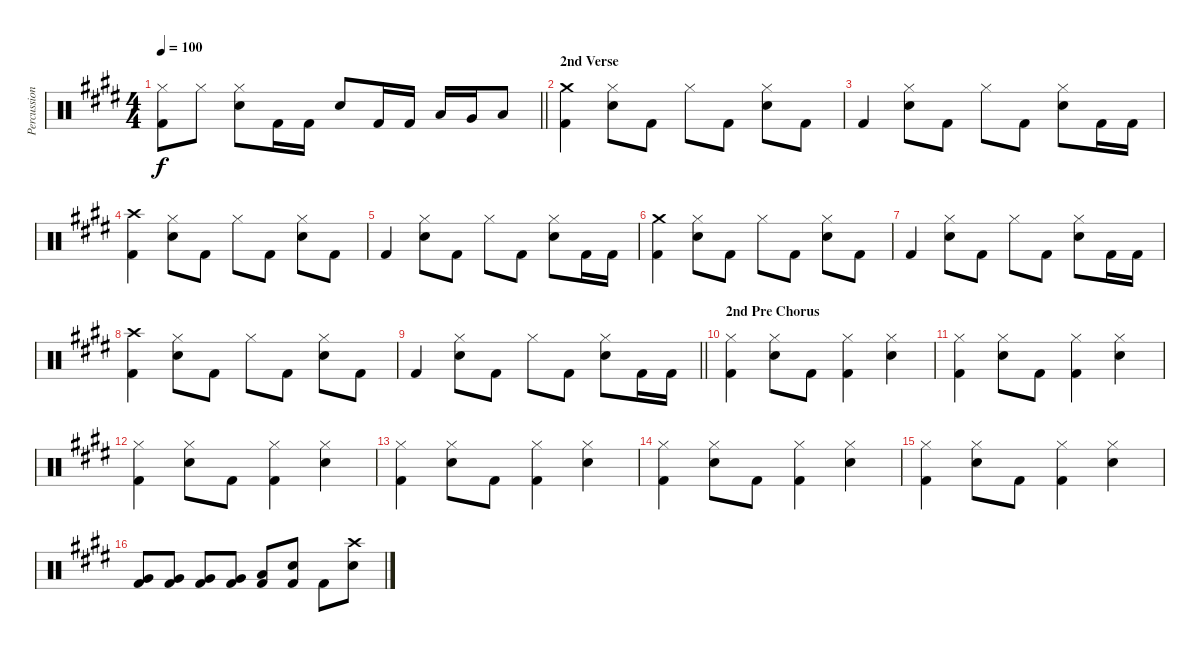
\track ("Percussion" "Percussion") {instrument percussion}
\staff {score}
\articulation defaults
\ts (4 4)
\tempo 100
\clef neutral
\barLineRight lightlight
\ks c#minor
("Hi-Hat (closed)" "Kick (hit) 2").8{dy f} "Hi-Hat (closed)".8 ("Hi-Hat (closed)" "Snare (hit) 2").8 "Kick (hit) 2".16 "Kick (hit) 2".16 "Snare (hit) 2".8 "Kick (hit) 2".16 "Kick (hit) 2".16 "Low Tom (hit)".16 "Very Low Tom (hit)".16 "Low Floor Tom (hit)".8 |
\section ("" "2nd Verse")
("Crash medium (hit)" "Kick (hit) 2").4 ("Hi-Hat (closed)" "Snare (hit) 2").8 "Kick (hit) 2".8 "Hi-Hat (closed)".8 "Kick (hit) 2".8 ("Hi-Hat (closed)" "Snare (hit) 2").8 "Kick (hit) 2".8 |
"Kick (hit) 2".4 ("Hi-Hat (closed)" "Snare (hit) 2").8 "Kick (hit) 2".8 "Hi-Hat (closed)".8 "Kick (hit) 2".8 ("Hi-Hat (closed)" "Snare (hit) 2").8 "Kick (hit) 2".16 "Kick (hit) 2".16 |
("Crash high (hit)" "Kick (hit) 2").4 ("Hi-Hat (closed)" "Snare (hit) 2").8 "Kick (hit) 2".8 "Hi-Hat (closed)".8 "Kick (hit) 2".8 ("Hi-Hat (closed)" "Snare (hit) 2").8 "Kick (hit) 2".8 |
"Kick (hit) 2".4 ("Hi-Hat (closed)" "Snare (hit) 2").8 "Kick (hit) 2".8 "Hi-Hat (closed)".8 "Kick (hit) 2".8 ("Hi-Hat (closed)" "Snare (hit) 2").8 "Kick (hit) 2".16 "Kick (hit) 2".16 |
("Crash medium (hit)" "Kick (hit) 2").4 ("Hi-Hat (closed)" "Snare (hit) 2").8 "Kick (hit) 2".8 "Hi-Hat (closed)".8 "Kick (hit) 2".8 ("Hi-Hat (closed)" "Snare (hit) 2").8 "Kick (hit) 2".8 |
"Kick (hit) 2".4 ("Hi-Hat (closed)" "Snare (hit) 2").8 "Kick (hit) 2".8 "Hi-Hat (closed)".8 "Kick (hit) 2".8 ("Hi-Hat (closed)" "Snare (hit) 2").8 "Kick (hit) 2".16 "Kick (hit) 2".16 |
("Crash high (hit)" "Kick (hit) 2").4 ("Hi-Hat (closed)" "Snare (hit) 2").8 "Kick (hit) 2".8 "Hi-Hat (closed)".8 "Kick (hit) 2".8 ("Hi-Hat (closed)" "Snare (hit) 2").8 "Kick (hit) 2".8 |
\barLineRight lightlight "Kick (hit) 2".4
("Hi-Hat (closed)" "Snare (hit) 2").8 "Kick (hit) 2".8 "Hi-Hat (closed)".8 "Kick (hit) 2".8 ("Hi-Hat (closed)" "Snare (hit) 2").8 "Kick (hit) 2".16 "Kick (hit) 2".16 |
\section ("" "2nd Pre Chorus")
("Hi-Hat (closed)" "Kick (hit) 2").4 ("Hi-Hat (closed)" "Snare (hit) 2").8 "Kick (hit) 2".8 ("Hi-Hat (closed)" "Kick (hit) 2").4 ("Hi-Hat (closed)" "Snare (hit) 2").4 |
("Hi-Hat (closed)" "Kick (hit) 2").4 ("Hi-Hat (closed)" "Snare (hit) 2").8 "Kick (hit) 2".8 ("Hi-Hat (closed)" "Kick (hit) 2").4 ("Hi-Hat (closed)" "Snare (hit) 2").4 |
("Hi-Hat (closed)" "Kick (hit) 2").4 ("Hi-Hat (closed)" "Snare (hit) 2").8 "Kick (hit) 2".8 ("Hi-Hat (closed)" "Kick (hit) 2").4 ("Hi-Hat (closed)" "Snare (hit) 2").4 |
("Hi-Hat (closed)" "Kick (hit) 2").4 ("Hi-Hat (closed)" "Snare (hit) 2").8 "Kick (hit) 2".8 ("Hi-Hat (closed)" "Kick (hit) 2").4 ("Hi-Hat (closed)" "Snare (hit) 2").4 |
("Hi-Hat (closed)" "Kick (hit) 2").4 ("Hi-Hat (closed)" "Snare (hit) 2").8 "Kick (hit) 2".8 ("Hi-Hat (closed)" "Kick (hit) 2").4 ("Hi-Hat (closed)" "Snare (hit) 2").4 |
("Hi-Hat (closed)" "Kick (hit) 2").4 ("Hi-Hat (closed)" "Snare (hit) 2").8 "Kick (hit) 2".8 ("Hi-Hat (closed)" "Kick (hit) 2").4 ("Hi-Hat (closed)" "Snare (hit) 2").4 |
("Very Low Tom (hit)" "Kick (hit) 2").8 ("Very Low Tom (hit)" "Kick (hit) 2").8 ("Very Low Tom (hit)" "Kick (hit) 2").8 ("Very Low Tom (hit)" "Kick (hit) 2").8 ("Low Floor Tom (hit)" "Kick (hit) 2").8 ("Snare (hit) 2" "Kick (hit) 2").8 "Kick (hit) 2".8 ("Crash high (hit)" "Snare (hit) 2").8
